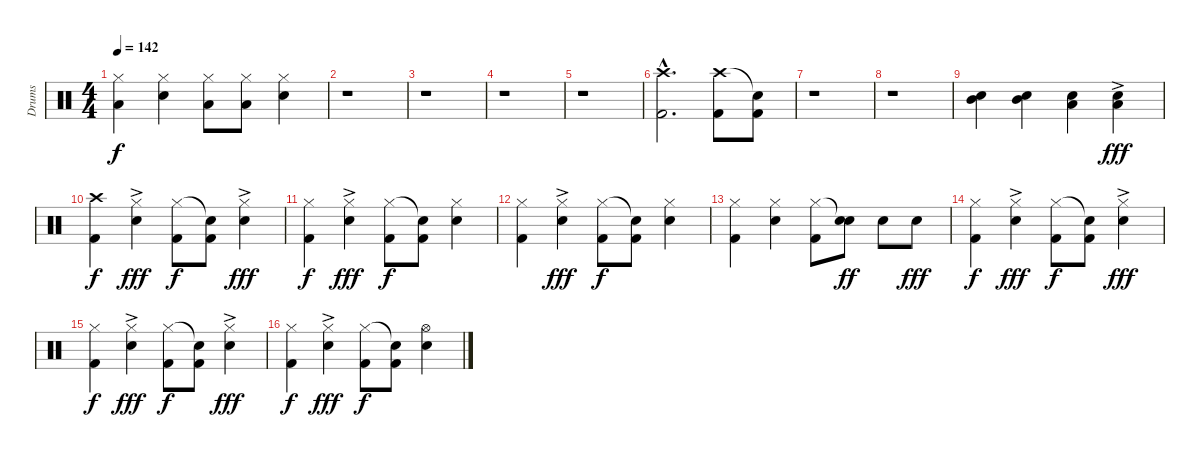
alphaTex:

\track ("Drums" "Drums") {instrument percussion}
\staff {score}
\articulation defaults
\ts (4 4)
\tempo 142
\clef neutral
\ks aminor
("Hi-Hat (closed)" "Low Floor Tom (hit)").4{dy f} ("Hi-Hat (closed)" "Snare (hit) 2").4 ("Hi-Hat (closed)" "Low Floor Tom (hit)").8 ("Hi-Hat (closed)" "Low Floor Tom (hit)").8 ("Hi-Hat (closed)" "Snare (hit) 2").4 |
r.1 |
r.1 |
r.1 |
r.1 |
("Crash high (hit)"{hac} "Kick (hit) 2"{hac}).2{d} ("Crash high (hit)" "Kick (hit) 2").8 ("Snare (hit)"{t} "Kick (hit) 2").8 |
r.1 |
r.1 |
("Mid Tom (hit)" "Snare (hit) 2").4 ("Mid Tom (hit)" "Snare (hit) 2").4 ("Low Floor Tom (hit)" "Snare (hit) 2").4 ("Low Floor Tom (hit)"{ac} "Snare (hit) 2"{ac}).4{dy fff} |
("Crash high (hit)" "Kick (hit) 2").4{dy f} ("Hi-Hat (closed)"{ac} "Snare (hit) 2").4{dy fff} ("Hi-Hat (closed)" "Kick (hit) 2").8{dy f} ("Snare (hit)"{t} "Kick (hit) 2").8 ("Hi-Hat (closed)"{ac} "Snare (hit) 2").4{dy fff} |
("Hi-Hat (closed)" "Kick (hit) 2").4{dy f} ("Hi-Hat (closed)"{ac} "Snare (hit) 2").4{dy fff} ("Hi-Hat (closed)" "Kick (hit) 2").8{dy f} ("Snare (hit)"{t} "Kick (hit) 2").8 ("Hi-Hat (closed)" "Snare (hit) 2").4 |
("Hi-Hat (closed)" "Kick (hit) 2").4 ("Hi-Hat (closed)"{ac} "Snare (hit) 2").4{dy fff} ("Hi-Hat (closed)" "Kick (hit) 2").8{dy f} ("Snare (hit)"{t} "Kick (hit) 2").8 ("Hi-Hat (closed)" "Snare (hit) 2").4 |
("Hi-Hat (closed)" "Kick (hit) 2").4 ("Hi-Hat (closed)" "Snare (hit) 2").4 ("Hi-Hat (closed)" "Kick (hit) 2").8 ("Snare (hit)"{t} "Snare (hit) 2").8{dy ff} "Snare (hit) 2".8 "Snare (hit) 2".8{dy fff} |
("Hi-Hat (closed)" "Kick (hit) 2").4{dy f} ("Hi-Hat (closed)"{ac} "Snare (hit) 2").4{dy fff} ("Hi-Hat (closed)" "Kick (hit) 2").8{dy f} ("Snare (hit)"{t} "Kick (hit) 2").8 ("Hi-Hat (closed)"{ac} "Snare (hit) 2").4{dy fff} |
("Hi-Hat (closed)" "Kick (hit) 2").4{dy f} ("Hi-Hat (closed)"{ac} "Snare (hit) 2").4{dy fff} ("Hi-Hat (closed)" "Kick (hit) 2").8{dy f} ("Snare (hit)"{t} "Kick (hit) 2").8 ("Hi-Hat (closed)"{ac} "Snare (hit) 2").4{dy fff} |
("Hi-Hat (closed)" "Kick (hit) 2").4{dy f} ("Hi-Hat (closed)"{ac} "Snare (hit) 2").4{dy fff} ("Hi-Hat (closed)" "Kick (hit) 2").8{dy f} ("Snare (hit)"{t} "Kick (hit) 2").8 ("Hi-Hat (open)" "Snare (hit) 2").4
